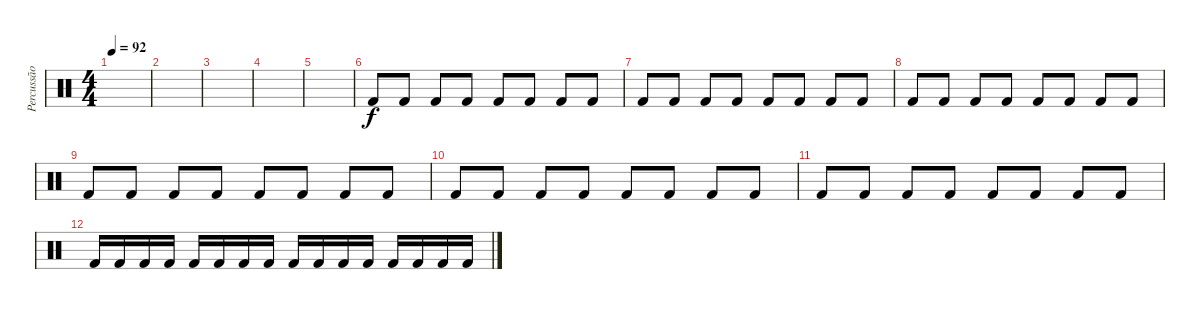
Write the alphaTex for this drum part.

\track ("Percussão" "Percussão") {instrument percussion}
\staff {score}
\articulation defaults
\ts (4 4)
\tempo 92
\clef neutral
\ks c
|
|
|
|
|
"Kick (hit) 2".8 "Kick (hit) 2".8 "Kick (hit) 2".8 "Kick (hit) 2".8 "Kick (hit) 2".8 "Kick (hit) 2".8 "Kick (hit) 2".8 "Kick (hit) 2".8 |
"Kick (hit) 2".8 "Kick (hit) 2".8 "Kick (hit) 2".8 "Kick (hit) 2".8 "Kick (hit) 2".8 "Kick (hit) 2".8 "Kick (hit) 2".8 "Kick (hit) 2".8 |
"Kick (hit) 2".8 "Kick (hit) 2".8 "Kick (hit) 2".8 "Kick (hit) 2".8 "Kick (hit) 2".8 "Kick (hit) 2".8 "Kick (hit) 2".8 "Kick (hit) 2".8 |
"Kick (hit) 2".8 "Kick (hit) 2".8 "Kick (hit) 2".8 "Kick (hit) 2".8 "Kick (hit) 2".8 "Kick (hit) 2".8 "Kick (hit) 2".8 "Kick (hit) 2".8 |
"Kick (hit) 2".8 "Kick (hit) 2".8 "Kick (hit) 2".8 "Kick (hit) 2".8 "Kick (hit) 2".8 "Kick (hit) 2".8 "Kick (hit) 2".8 "Kick (hit) 2".8 |
"Kick (hit) 2".8 "Kick (hit) 2".8 "Kick (hit) 2".8 "Kick (hit) 2".8 "Kick (hit) 2".8 "Kick (hit) 2".8 "Kick (hit) 2".8 "Kick (hit) 2".8 |
"Kick (hit) 2".16 "Kick (hit) 2".16 "Kick (hit) 2".16 "Kick (hit) 2".16 "Kick (hit) 2".16 "Kick (hit) 2".16 "Kick (hit) 2".16 "Kick (hit) 2".16 "Kick (hit) 2".16 "Kick (hit) 2".16 "Kick (hit) 2".16 "Kick (hit) 2".16 "Kick (hit) 2".16 "Kick (hit) 2".16 "Kick (hit) 2".16 "Kick (hit) 2".16
